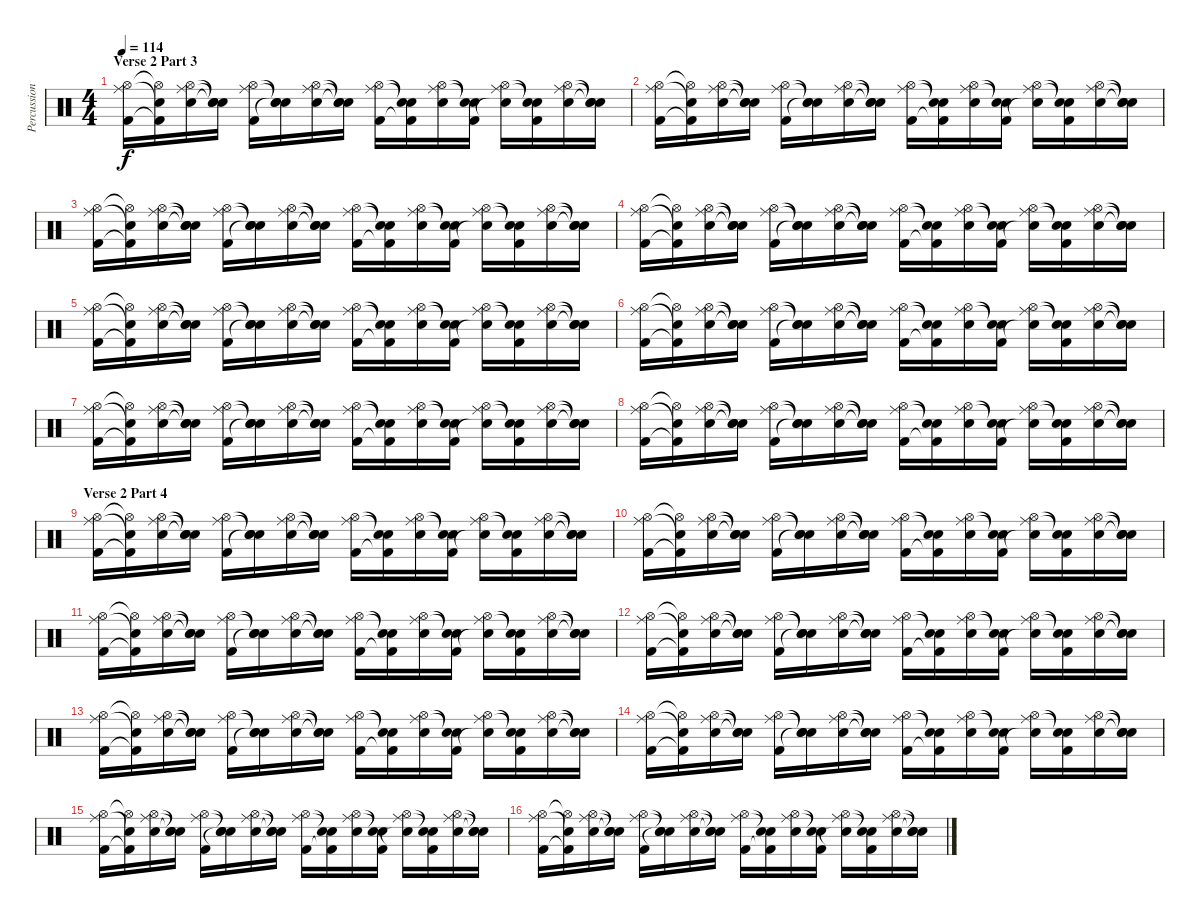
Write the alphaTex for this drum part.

\track ("Percussion" "Percussion") {instrument percussion}
\staff {score}
\articulation defaults
\ts (4 4)
\section ("" "Verse 2 Part 3")
\tempo 114
\clef neutral
\ks c
("Hi-Hat (open)" "Ride (middle)" "Kick (hit) 2").16{dy f} ("Hi-Hat (open)"{t} "Snare (hit)"{t} "Kick (hit) 2"{t}).16 ("Hi-Hat (open)" "Ride (middle)" "Snare (hit) 2").16 ("Snare (hit)"{t} "Snare (hit)"{t} "Snare (hit)"{t}).16 ("Hi-Hat (open)" "Ride (middle)" "Kick (hit) 2").16 ("Snare (hit)"{t} "Snare (hit)"{t} "Snare (hit)"{t}).16 ("Hi-Hat (open)" "Ride (middle)" "Snare (hit) 2").16 ("Snare (hit)"{t} "Snare (hit)"{t} "Snare (hit)"{t}).16 ("Hi-Hat (open)" "Ride (middle)" "Kick (hit) 2").16 ("Snare (hit)"{t} "Snare (hit)"{t} "Kick (hit) 2"{t}).16 ("Hi-Hat (open)" "Ride (middle)" "Snare (hit) 2").16 ("Snare (hit)"{t} "Snare (hit)"{t} "Kick (hit) 2").16 ("Hi-Hat (open)" "Ride (middle)" "Snare (hit)"{t}).16 ("Snare (hit)"{t} "Snare (hit)"{t} "Kick (hit) 2").16 ("Hi-Hat (open)" "Ride (middle)" "Snare (hit) 2").16 ("Snare (hit)"{t} "Snare (hit)"{t} "Snare (hit)"{t}).16 |
("Hi-Hat (open)" "Ride (middle)" "Kick (hit) 2").16 ("Hi-Hat (open)"{t} "Snare (hit)"{t} "Kick (hit) 2"{t}).16 ("Hi-Hat (open)" "Ride (middle)" "Snare (hit) 2").16 ("Snare (hit)"{t} "Snare (hit)"{t} "Snare (hit)"{t}).16 ("Hi-Hat (open)" "Ride (middle)" "Kick (hit) 2").16 ("Snare (hit)"{t} "Snare (hit)"{t} "Snare (hit)"{t}).16 ("Hi-Hat (open)" "Ride (middle)" "Snare (hit) 2").16 ("Snare (hit)"{t} "Snare (hit)"{t} "Snare (hit)"{t}).16 ("Hi-Hat (open)" "Ride (middle)" "Kick (hit) 2").16 ("Snare (hit)"{t} "Snare (hit)"{t} "Kick (hit) 2"{t}).16 ("Hi-Hat (open)" "Ride (middle)" "Snare (hit) 2").16 ("Snare (hit)"{t} "Snare (hit)"{t} "Kick (hit) 2").16 ("Hi-Hat (open)" "Ride (middle)" "Snare (hit)"{t}).16 ("Snare (hit)"{t} "Snare (hit)"{t} "Kick (hit) 2").16 ("Hi-Hat (open)" "Ride (middle)" "Snare (hit) 2").16 ("Snare (hit)"{t} "Snare (hit)"{t} "Snare (hit)"{t}).16 |
("Hi-Hat (open)" "Ride (middle)" "Kick (hit) 2").16 ("Hi-Hat (open)"{t} "Snare (hit)"{t} "Kick (hit) 2"{t}).16 ("Hi-Hat (open)" "Ride (middle)" "Snare (hit) 2").16 ("Snare (hit)"{t} "Snare (hit)"{t} "Snare (hit)"{t}).16 ("Hi-Hat (open)" "Ride (middle)" "Kick (hit) 2").16 ("Snare (hit)"{t} "Snare (hit)"{t} "Snare (hit)"{t}).16 ("Hi-Hat (open)" "Ride (middle)" "Snare (hit) 2").16 ("Snare (hit)"{t} "Snare (hit)"{t} "Snare (hit)"{t}).16 ("Hi-Hat (open)" "Ride (middle)" "Kick (hit) 2").16 ("Snare (hit)"{t} "Snare (hit)"{t} "Kick (hit) 2"{t}).16 ("Hi-Hat (open)" "Ride (middle)" "Snare (hit) 2").16 ("Snare (hit)"{t} "Snare (hit)"{t} "Kick (hit) 2").16 ("Hi-Hat (open)" "Ride (middle)" "Snare (hit)"{t}).16 ("Snare (hit)"{t} "Snare (hit)"{t} "Kick (hit) 2").16 ("Hi-Hat (open)" "Ride (middle)" "Snare (hit) 2").16 ("Snare (hit)"{t} "Snare (hit)"{t} "Snare (hit)"{t}).16 |
("Hi-Hat (open)" "Ride (middle)" "Kick (hit) 2").16 ("Hi-Hat (open)"{t} "Snare (hit)"{t} "Kick (hit) 2"{t}).16 ("Hi-Hat (open)" "Ride (middle)" "Snare (hit) 2").16 ("Snare (hit)"{t} "Snare (hit)"{t} "Snare (hit)"{t}).16 ("Hi-Hat (open)" "Ride (middle)" "Kick (hit) 2").16 ("Snare (hit)"{t} "Snare (hit)"{t} "Snare (hit)"{t}).16 ("Hi-Hat (open)" "Ride (middle)" "Snare (hit) 2").16 ("Snare (hit)"{t} "Snare (hit)"{t} "Snare (hit)"{t}).16 ("Hi-Hat (open)" "Ride (middle)" "Kick (hit) 2").16 ("Snare (hit)"{t} "Snare (hit)"{t} "Kick (hit) 2"{t}).16 ("Hi-Hat (open)" "Ride (middle)" "Snare (hit) 2").16 ("Snare (hit)"{t} "Snare (hit)"{t} "Kick (hit) 2").16 ("Hi-Hat (open)" "Ride (middle)" "Snare (hit)"{t}).16 ("Snare (hit)"{t} "Snare (hit)"{t} "Kick (hit) 2").16 ("Hi-Hat (open)" "Ride (middle)" "Snare (hit) 2").16 ("Snare (hit)"{t} "Snare (hit)"{t} "Snare (hit)"{t}).16 |
("Hi-Hat (open)" "Ride (middle)" "Kick (hit) 2").16 ("Hi-Hat (open)"{t} "Snare (hit)"{t} "Kick (hit) 2"{t}).16 ("Hi-Hat (open)" "Ride (middle)" "Snare (hit) 2").16 ("Snare (hit)"{t} "Snare (hit)"{t} "Snare (hit)"{t}).16 ("Hi-Hat (open)" "Ride (middle)" "Kick (hit) 2").16 ("Snare (hit)"{t} "Snare (hit)"{t} "Snare (hit)"{t}).16 ("Hi-Hat (open)" "Ride (middle)" "Snare (hit) 2").16 ("Snare (hit)"{t} "Snare (hit)"{t} "Snare (hit)"{t}).16 ("Hi-Hat (open)" "Ride (middle)" "Kick (hit) 2").16 ("Snare (hit)"{t} "Snare (hit)"{t} "Kick (hit) 2"{t}).16 ("Hi-Hat (open)" "Ride (middle)" "Snare (hit) 2").16 ("Snare (hit)"{t} "Snare (hit)"{t} "Kick (hit) 2").16 ("Hi-Hat (open)" "Ride (middle)" "Snare (hit)"{t}).16 ("Snare (hit)"{t} "Snare (hit)"{t} "Kick (hit) 2").16 ("Hi-Hat (open)" "Ride (middle)" "Snare (hit) 2").16 ("Snare (hit)"{t} "Snare (hit)"{t} "Snare (hit)"{t}).16 |
("Hi-Hat (open)" "Ride (middle)" "Kick (hit) 2").16 ("Hi-Hat (open)"{t} "Snare (hit)"{t} "Kick (hit) 2"{t}).16 ("Hi-Hat (open)" "Ride (middle)" "Snare (hit) 2").16 ("Snare (hit)"{t} "Snare (hit)"{t} "Snare (hit)"{t}).16 ("Hi-Hat (open)" "Ride (middle)" "Kick (hit) 2").16 ("Snare (hit)"{t} "Snare (hit)"{t} "Snare (hit)"{t}).16 ("Hi-Hat (open)" "Ride (middle)" "Snare (hit) 2").16 ("Snare (hit)"{t} "Snare (hit)"{t} "Snare (hit)"{t}).16 ("Hi-Hat (open)" "Ride (middle)" "Kick (hit) 2").16 ("Snare (hit)"{t} "Snare (hit)"{t} "Kick (hit) 2"{t}).16 ("Hi-Hat (open)" "Ride (middle)" "Snare (hit) 2").16 ("Snare (hit)"{t} "Snare (hit)"{t} "Kick (hit) 2").16 ("Hi-Hat (open)" "Ride (middle)" "Snare (hit)"{t}).16 ("Snare (hit)"{t} "Snare (hit)"{t} "Kick (hit) 2").16 ("Hi-Hat (open)" "Ride (middle)" "Snare (hit) 2").16 ("Snare (hit)"{t} "Snare (hit)"{t} "Snare (hit)"{t}).16 |
("Hi-Hat (open)" "Ride (middle)" "Kick (hit) 2").16 ("Hi-Hat (open)"{t} "Snare (hit)"{t} "Kick (hit) 2"{t}).16 ("Hi-Hat (open)" "Ride (middle)" "Snare (hit) 2").16 ("Snare (hit)"{t} "Snare (hit)"{t} "Snare (hit)"{t}).16 ("Hi-Hat (open)" "Ride (middle)" "Kick (hit) 2").16 ("Snare (hit)"{t} "Snare (hit)"{t} "Snare (hit)"{t}).16 ("Hi-Hat (open)" "Ride (middle)" "Snare (hit) 2").16 ("Snare (hit)"{t} "Snare (hit)"{t} "Snare (hit)"{t}).16 ("Hi-Hat (open)" "Ride (middle)" "Kick (hit) 2").16 ("Snare (hit)"{t} "Snare (hit)"{t} "Kick (hit) 2"{t}).16 ("Hi-Hat (open)" "Ride (middle)" "Snare (hit) 2").16 ("Snare (hit)"{t} "Snare (hit)"{t} "Kick (hit) 2").16 ("Hi-Hat (open)" "Ride (middle)" "Snare (hit)"{t}).16 ("Snare (hit)"{t} "Snare (hit)"{t} "Kick (hit) 2").16 ("Hi-Hat (open)" "Ride (middle)" "Snare (hit) 2").16 ("Snare (hit)"{t} "Snare (hit)"{t} "Snare (hit)"{t}).16 |
("Hi-Hat (open)" "Ride (middle)" "Kick (hit) 2").16 ("Hi-Hat (open)"{t} "Snare (hit)"{t} "Kick (hit) 2"{t}).16 ("Hi-Hat (open)" "Ride (middle)" "Snare (hit) 2").16 ("Snare (hit)"{t} "Snare (hit)"{t} "Snare (hit)"{t}).16 ("Hi-Hat (open)" "Ride (middle)" "Kick (hit) 2").16 ("Snare (hit)"{t} "Snare (hit)"{t} "Snare (hit)"{t}).16 ("Hi-Hat (open)" "Ride (middle)" "Snare (hit) 2").16 ("Snare (hit)"{t} "Snare (hit)"{t} "Snare (hit)"{t}).16 ("Hi-Hat (open)" "Ride (middle)" "Kick (hit) 2").16 ("Snare (hit)"{t} "Snare (hit)"{t} "Kick (hit) 2"{t}).16 ("Hi-Hat (open)" "Ride (middle)" "Snare (hit) 2").16 ("Snare (hit)"{t} "Snare (hit)"{t} "Kick (hit) 2").16 ("Hi-Hat (open)" "Ride (middle)" "Snare (hit)"{t}).16 ("Snare (hit)"{t} "Snare (hit)"{t} "Kick (hit) 2").16 ("Hi-Hat (open)" "Ride (middle)" "Snare (hit) 2").16 ("Snare (hit)"{t} "Snare (hit)"{t} "Snare (hit)"{t}).16 |
\section ("" "Verse 2 Part 4")
("Hi-Hat (open)" "Ride (middle)" "Kick (hit) 2").16 ("Hi-Hat (open)"{t} "Snare (hit)"{t} "Kick (hit) 2"{t}).16 ("Hi-Hat (open)" "Ride (middle)" "Snare (hit) 2").16 ("Snare (hit)"{t} "Snare (hit)"{t} "Snare (hit)"{t}).16 ("Hi-Hat (open)" "Ride (middle)" "Kick (hit) 2").16 ("Snare (hit)"{t} "Snare (hit)"{t} "Snare (hit)"{t}).16 ("Hi-Hat (open)" "Ride (middle)" "Snare (hit) 2").16 ("Snare (hit)"{t} "Snare (hit)"{t} "Snare (hit)"{t}).16 ("Hi-Hat (open)" "Ride (middle)" "Kick (hit) 2").16 ("Snare (hit)"{t} "Snare (hit)"{t} "Kick (hit) 2"{t}).16 ("Hi-Hat (open)" "Ride (middle)" "Snare (hit) 2").16 ("Snare (hit)"{t} "Snare (hit)"{t} "Kick (hit) 2").16 ("Hi-Hat (open)" "Ride (middle)" "Snare (hit)"{t}).16 ("Snare (hit)"{t} "Snare (hit)"{t} "Kick (hit) 2").16 ("Hi-Hat (open)" "Ride (middle)" "Snare (hit) 2").16 ("Snare (hit)"{t} "Snare (hit)"{t} "Snare (hit)"{t}).16 |
("Hi-Hat (open)" "Ride (middle)" "Kick (hit) 2").16 ("Hi-Hat (open)"{t} "Snare (hit)"{t} "Kick (hit) 2"{t}).16 ("Hi-Hat (open)" "Ride (middle)" "Snare (hit) 2").16 ("Snare (hit)"{t} "Snare (hit)"{t} "Snare (hit)"{t}).16 ("Hi-Hat (open)" "Ride (middle)" "Kick (hit) 2").16 ("Snare (hit)"{t} "Snare (hit)"{t} "Snare (hit)"{t}).16 ("Hi-Hat (open)" "Ride (middle)" "Snare (hit) 2").16 ("Snare (hit)"{t} "Snare (hit)"{t} "Snare (hit)"{t}).16 ("Hi-Hat (open)" "Ride (middle)" "Kick (hit) 2").16 ("Snare (hit)"{t} "Snare (hit)"{t} "Kick (hit) 2"{t}).16 ("Hi-Hat (open)" "Ride (middle)" "Snare (hit) 2").16 ("Snare (hit)"{t} "Snare (hit)"{t} "Kick (hit) 2").16 ("Hi-Hat (open)" "Ride (middle)" "Snare (hit)"{t}).16 ("Snare (hit)"{t} "Snare (hit)"{t} "Kick (hit) 2").16 ("Hi-Hat (open)" "Ride (middle)" "Snare (hit) 2").16 ("Snare (hit)"{t} "Snare (hit)"{t} "Snare (hit)"{t}).16 |
("Hi-Hat (open)" "Ride (middle)" "Kick (hit) 2").16 ("Hi-Hat (open)"{t} "Snare (hit)"{t} "Kick (hit) 2"{t}).16 ("Hi-Hat (open)" "Ride (middle)" "Snare (hit) 2").16 ("Snare (hit)"{t} "Snare (hit)"{t} "Snare (hit)"{t}).16 ("Hi-Hat (open)" "Ride (middle)" "Kick (hit) 2").16 ("Snare (hit)"{t} "Snare (hit)"{t} "Snare (hit)"{t}).16 ("Hi-Hat (open)" "Ride (middle)" "Snare (hit) 2").16 ("Snare (hit)"{t} "Snare (hit)"{t} "Snare (hit)"{t}).16 ("Hi-Hat (open)" "Ride (middle)" "Kick (hit) 2").16 ("Snare (hit)"{t} "Snare (hit)"{t} "Kick (hit) 2"{t}).16 ("Hi-Hat (open)" "Ride (middle)" "Snare (hit) 2").16 ("Snare (hit)"{t} "Snare (hit)"{t} "Kick (hit) 2").16 ("Hi-Hat (open)" "Ride (middle)" "Snare (hit)"{t}).16 ("Snare (hit)"{t} "Snare (hit)"{t} "Kick (hit) 2").16 ("Hi-Hat (open)" "Ride (middle)" "Snare (hit) 2").16 ("Snare (hit)"{t} "Snare (hit)"{t} "Snare (hit)"{t}).16 |
("Hi-Hat (open)" "Ride (middle)" "Kick (hit) 2").16 ("Hi-Hat (open)"{t} "Snare (hit)"{t} "Kick (hit) 2"{t}).16 ("Hi-Hat (open)" "Ride (middle)" "Snare (hit) 2").16 ("Snare (hit)"{t} "Snare (hit)"{t} "Snare (hit)"{t}).16 ("Hi-Hat (open)" "Ride (middle)" "Kick (hit) 2").16 ("Snare (hit)"{t} "Snare (hit)"{t} "Snare (hit)"{t}).16 ("Hi-Hat (open)" "Ride (middle)" "Snare (hit) 2").16 ("Snare (hit)"{t} "Snare (hit)"{t} "Snare (hit)"{t}).16 ("Hi-Hat (open)" "Ride (middle)" "Kick (hit) 2").16 ("Snare (hit)"{t} "Snare (hit)"{t} "Kick (hit) 2"{t}).16 ("Hi-Hat (open)" "Ride (middle)" "Snare (hit) 2").16 ("Snare (hit)"{t} "Snare (hit)"{t} "Kick (hit) 2").16 ("Hi-Hat (open)" "Ride (middle)" "Snare (hit)"{t}).16 ("Snare (hit)"{t} "Snare (hit)"{t} "Kick (hit) 2").16 ("Hi-Hat (open)" "Ride (middle)" "Snare (hit) 2").16 ("Snare (hit)"{t} "Snare (hit)"{t} "Snare (hit)"{t}).16 |
("Hi-Hat (open)" "Ride (middle)" "Kick (hit) 2").16 ("Hi-Hat (open)"{t} "Snare (hit)"{t} "Kick (hit) 2"{t}).16 ("Hi-Hat (open)" "Ride (middle)" "Snare (hit) 2").16 ("Snare (hit)"{t} "Snare (hit)"{t} "Snare (hit)"{t}).16 ("Hi-Hat (open)" "Ride (middle)" "Kick (hit) 2").16 ("Snare (hit)"{t} "Snare (hit)"{t} "Snare (hit)"{t}).16 ("Hi-Hat (open)" "Ride (middle)" "Snare (hit) 2").16 ("Snare (hit)"{t} "Snare (hit)"{t} "Snare (hit)"{t}).16 ("Hi-Hat (open)" "Ride (middle)" "Kick (hit) 2").16 ("Snare (hit)"{t} "Snare (hit)"{t} "Kick (hit) 2"{t}).16 ("Hi-Hat (open)" "Ride (middle)" "Snare (hit) 2").16 ("Snare (hit)"{t} "Snare (hit)"{t} "Kick (hit) 2").16 ("Hi-Hat (open)" "Ride (middle)" "Snare (hit)"{t}).16 ("Snare (hit)"{t} "Snare (hit)"{t} "Kick (hit) 2").16 ("Hi-Hat (open)" "Ride (middle)" "Snare (hit) 2").16 ("Snare (hit)"{t} "Snare (hit)"{t} "Snare (hit)"{t}).16 |
("Hi-Hat (open)" "Ride (middle)" "Kick (hit) 2").16 ("Hi-Hat (open)"{t} "Snare (hit)"{t} "Kick (hit) 2"{t}).16 ("Hi-Hat (open)" "Ride (middle)" "Snare (hit) 2").16 ("Snare (hit)"{t} "Snare (hit)"{t} "Snare (hit)"{t}).16 ("Hi-Hat (open)" "Ride (middle)" "Kick (hit) 2").16 ("Snare (hit)"{t} "Snare (hit)"{t} "Snare (hit)"{t}).16 ("Hi-Hat (open)" "Ride (middle)" "Snare (hit) 2").16 ("Snare (hit)"{t} "Snare (hit)"{t} "Snare (hit)"{t}).16 ("Hi-Hat (open)" "Ride (middle)" "Kick (hit) 2").16 ("Snare (hit)"{t} "Snare (hit)"{t} "Kick (hit) 2"{t}).16 ("Hi-Hat (open)" "Ride (middle)" "Snare (hit) 2").16 ("Snare (hit)"{t} "Snare (hit)"{t} "Kick (hit) 2").16 ("Hi-Hat (open)" "Ride (middle)" "Snare (hit)"{t}).16 ("Snare (hit)"{t} "Snare (hit)"{t} "Kick (hit) 2").16 ("Hi-Hat (open)" "Ride (middle)" "Snare (hit) 2").16 ("Snare (hit)"{t} "Snare (hit)"{t} "Snare (hit)"{t}).16 |
("Hi-Hat (open)" "Ride (middle)" "Kick (hit) 2").16 ("Hi-Hat (open)"{t} "Snare (hit)"{t} "Kick (hit) 2"{t}).16 ("Hi-Hat (open)" "Ride (middle)" "Snare (hit) 2").16 ("Snare (hit)"{t} "Snare (hit)"{t} "Snare (hit)"{t}).16 ("Hi-Hat (open)" "Ride (middle)" "Kick (hit) 2").16 ("Snare (hit)"{t} "Snare (hit)"{t} "Snare (hit)"{t}).16 ("Hi-Hat (open)" "Ride (middle)" "Snare (hit) 2").16 ("Snare (hit)"{t} "Snare (hit)"{t} "Snare (hit)"{t}).16 ("Hi-Hat (open)" "Ride (middle)" "Kick (hit) 2").16 ("Snare (hit)"{t} "Snare (hit)"{t} "Kick (hit) 2"{t}).16 ("Hi-Hat (open)" "Ride (middle)" "Snare (hit) 2").16 ("Snare (hit)"{t} "Snare (hit)"{t} "Kick (hit) 2").16 ("Hi-Hat (open)" "Ride (middle)" "Snare (hit)"{t}).16 ("Snare (hit)"{t} "Snare (hit)"{t} "Kick (hit) 2").16 ("Hi-Hat (open)" "Ride (middle)" "Snare (hit) 2").16 ("Snare (hit)"{t} "Snare (hit)"{t} "Snare (hit)"{t}).16 |
("Hi-Hat (open)" "Ride (middle)" "Kick (hit) 2").16 ("Hi-Hat (open)"{t} "Snare (hit)"{t} "Kick (hit) 2"{t}).16 ("Hi-Hat (open)" "Ride (middle)" "Snare (hit) 2").16 ("Snare (hit)"{t} "Snare (hit)"{t} "Snare (hit)"{t}).16 ("Hi-Hat (open)" "Ride (middle)" "Kick (hit) 2").16 ("Snare (hit)"{t} "Snare (hit)"{t} "Snare (hit)"{t}).16 ("Hi-Hat (open)" "Ride (middle)" "Snare (hit) 2").16 ("Snare (hit)"{t} "Snare (hit)"{t} "Snare (hit)"{t}).16 ("Hi-Hat (open)" "Ride (middle)" "Kick (hit) 2").16 ("Snare (hit)"{t} "Snare (hit)"{t} "Kick (hit) 2"{t}).16 ("Hi-Hat (open)" "Ride (middle)" "Snare (hit) 2").16 ("Snare (hit)"{t} "Snare (hit)"{t} "Kick (hit) 2").16 ("Hi-Hat (open)" "Ride (middle)" "Snare (hit)"{t}).16 ("Snare (hit)"{t} "Snare (hit)"{t} "Kick (hit) 2").16 ("Hi-Hat (open)" "Ride (middle)" "Snare (hit) 2").16 ("Snare (hit)"{t} "Snare (hit)"{t} "Snare (hit)"{t}).16
